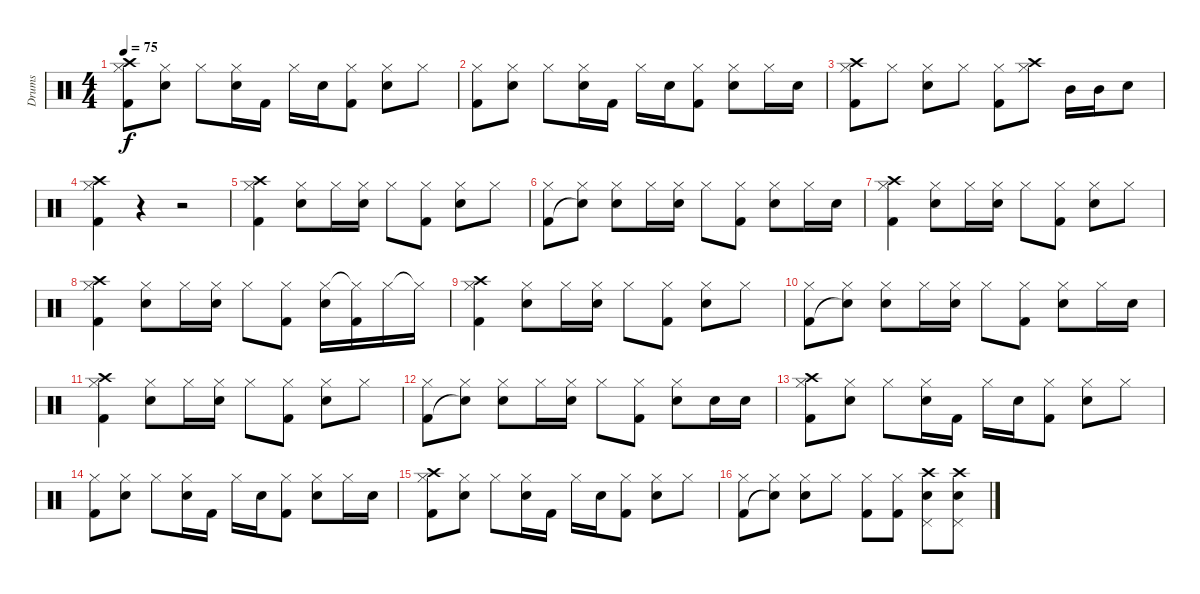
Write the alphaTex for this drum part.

\track ("Drums" "Drums") {instrument percussion}
\staff {score}
\articulation defaults
\ts (4 4)
\tempo 75
\clef neutral
\ks c
("Crash high (hit)" "Hi-Hat (closed)" "Kick (hit) 2").8{dy f} ("Hi-Hat (closed)" "Electric Snare (hit)").8 "Hi-Hat (closed)".8 ("Hi-Hat (closed)" "Electric Snare (hit)").16 "Kick (hit) 2".16 "Hi-Hat (closed)".16 "Electric Snare (hit)".16 ("Hi-Hat (closed)" "Kick (hit) 2").8 ("Hi-Hat (closed)" "Electric Snare (hit)").8 "Hi-Hat (closed)".8 |
("Hi-Hat (closed)" "Kick (hit) 2").8 ("Hi-Hat (closed)" "Electric Snare (hit)").8 "Hi-Hat (closed)".8 ("Hi-Hat (closed)" "Electric Snare (hit)").16 "Kick (hit) 2".16 "Hi-Hat (closed)".16 "Electric Snare (hit)".16 ("Hi-Hat (closed)" "Kick (hit) 2").8 ("Hi-Hat (closed)" "Electric Snare (hit)").8 "Hi-Hat (closed)".16 "Electric Snare (hit)".16 |
("Crash high (hit)" "Hi-Hat (closed)" "Kick (hit) 2").8 "Hi-Hat (closed)".8 ("Hi-Hat (closed)" "Electric Snare (hit)").8 "Hi-Hat (closed)".8 ("Hi-Hat (closed)" "Kick (hit) 2").8 ("Crash high (hit)" "Hi-Hat (closed)").8 "Mid Tom (hit)".16 "Mid Tom (hit)".16 "Electric Snare (hit)".8 |
("Crash high (hit)" "Hi-Hat (closed)" "Kick (hit) 2").4 r.4 r.2 |
("Crash high (hit)" "Hi-Hat (closed)" "Kick (hit) 2").4 ("Hi-Hat (closed)" "Electric Snare (hit)").8 "Hi-Hat (closed)".16 ("Hi-Hat (closed)" "Electric Snare (hit)").16 "Hi-Hat (closed)".8 ("Hi-Hat (closed)" "Kick (hit) 2").8 ("Hi-Hat (closed)" "Electric Snare (hit)").8 "Hi-Hat (closed)".8 |
("Hi-Hat (closed)" "Kick (hit) 2").8 ("Hi-Hat (closed)" "Snare (hit)"{t}).8 ("Hi-Hat (closed)" "Electric Snare (hit)").8 "Hi-Hat (closed)".16 ("Hi-Hat (closed)" "Electric Snare (hit)").16 "Hi-Hat (closed)".8 ("Hi-Hat (closed)" "Kick (hit) 2").8 ("Hi-Hat (closed)" "Electric Snare (hit)").8 "Hi-Hat (closed)".16 "Electric Snare (hit)".16 |
("Crash high (hit)" "Hi-Hat (closed)" "Kick (hit) 2").4 ("Hi-Hat (closed)" "Electric Snare (hit)").8 "Hi-Hat (closed)".16 ("Hi-Hat (closed)" "Electric Snare (hit)").16 "Hi-Hat (closed)".8 ("Hi-Hat (closed)" "Kick (hit) 2").8 ("Hi-Hat (closed)" "Electric Snare (hit)").8 "Hi-Hat (closed)".8 |
("Crash high (hit)" "Hi-Hat (closed)" "Kick (hit) 2").4 ("Hi-Hat (closed)" "Electric Snare (hit)").8 "Hi-Hat (closed)".16 ("Hi-Hat (closed)" "Electric Snare (hit)").16 "Hi-Hat (closed)".8 ("Hi-Hat (closed)" "Kick (hit) 2").8 ("Hi-Hat (closed)" "Electric Snare (hit)").16 ("Hi-Hat (closed)"{t} "Kick (hit) 2").16 "Hi-Hat (closed)".16 "Hi-Hat (closed)"{t}.16 |
("Crash high (hit)" "Hi-Hat (closed)" "Kick (hit) 2").4 ("Hi-Hat (closed)" "Electric Snare (hit)").8 "Hi-Hat (closed)".16 ("Hi-Hat (closed)" "Electric Snare (hit)").16 "Hi-Hat (closed)".8 ("Hi-Hat (closed)" "Kick (hit) 2").8 ("Hi-Hat (closed)" "Electric Snare (hit)").8 "Hi-Hat (closed)".8 |
("Hi-Hat (closed)" "Kick (hit) 2").8 ("Hi-Hat (closed)" "Snare (hit)"{t}).8 ("Hi-Hat (closed)" "Electric Snare (hit)").8 "Hi-Hat (closed)".16 ("Hi-Hat (closed)" "Electric Snare (hit)").16 "Hi-Hat (closed)".8 ("Hi-Hat (closed)" "Kick (hit) 2").8 ("Hi-Hat (closed)" "Electric Snare (hit)").8 "Hi-Hat (closed)".16 "Electric Snare (hit)".16 |
("Crash high (hit)" "Hi-Hat (closed)" "Kick (hit) 2").4 ("Hi-Hat (closed)" "Electric Snare (hit)").8 "Hi-Hat (closed)".16 ("Hi-Hat (closed)" "Electric Snare (hit)").16 "Hi-Hat (closed)".8 ("Hi-Hat (closed)" "Kick (hit) 2").8 ("Hi-Hat (closed)" "Electric Snare (hit)").8 "Hi-Hat (closed)".8 |
("Hi-Hat (closed)" "Kick (hit) 2").8 ("Hi-Hat (closed)" "Snare (hit)"{t}).8 ("Hi-Hat (closed)" "Electric Snare (hit)").8 "Hi-Hat (closed)".16 ("Hi-Hat (closed)" "Electric Snare (hit)").16 "Hi-Hat (closed)".8 ("Hi-Hat (closed)" "Kick (hit) 2").8 ("Hi-Hat (closed)" "Electric Snare (hit)").8 "Electric Snare (hit)".16 "Electric Snare (hit)".16 |
("Crash high (hit)" "Hi-Hat (closed)" "Kick (hit) 2").8 ("Hi-Hat (closed)" "Electric Snare (hit)").8 "Hi-Hat (closed)".8 ("Hi-Hat (closed)" "Electric Snare (hit)").16 "Kick (hit) 2".16 "Hi-Hat (closed)".16 "Electric Snare (hit)".16 ("Hi-Hat (closed)" "Kick (hit) 2").8 ("Hi-Hat (closed)" "Electric Snare (hit)").8 "Hi-Hat (closed)".8 |
("Hi-Hat (closed)" "Kick (hit) 2").8 ("Hi-Hat (closed)" "Electric Snare (hit)").8 "Hi-Hat (closed)".8 ("Hi-Hat (closed)" "Electric Snare (hit)").16 "Kick (hit) 2".16 "Hi-Hat (closed)".16 "Electric Snare (hit)".16 ("Hi-Hat (closed)" "Kick (hit) 2").8 ("Hi-Hat (closed)" "Electric Snare (hit)").8 "Hi-Hat (closed)".16 "Electric Snare (hit)".16 |
("Crash high (hit)" "Hi-Hat (closed)" "Kick (hit) 2").8 ("Hi-Hat (closed)" "Electric Snare (hit)").8 "Hi-Hat (closed)".8 ("Hi-Hat (closed)" "Electric Snare (hit)").16 "Kick (hit) 2".16 "Hi-Hat (closed)".16 "Electric Snare (hit)".16 ("Hi-Hat (closed)" "Kick (hit) 2").8 ("Hi-Hat (closed)" "Electric Snare (hit)").8 "Hi-Hat (closed)".8 |
("Hi-Hat (closed)" "Kick (hit) 2").8 ("Hi-Hat (closed)" "Snare (hit)"{t}).8 ("Electric Snare (hit)" "Hi-Hat (closed)").8 "Hi-Hat (closed)".8 ("Hi-Hat (closed)" "Kick (hit) 2").8 ("Hi-Hat (closed)" "Kick (hit) 2").8 ("Electric Snare (hit)" "Crash high (hit)" "Pedal Hi-Hat (hit)").8 ("Crash high (hit)" "Electric Snare (hit)" "Pedal Hi-Hat (hit)").8
